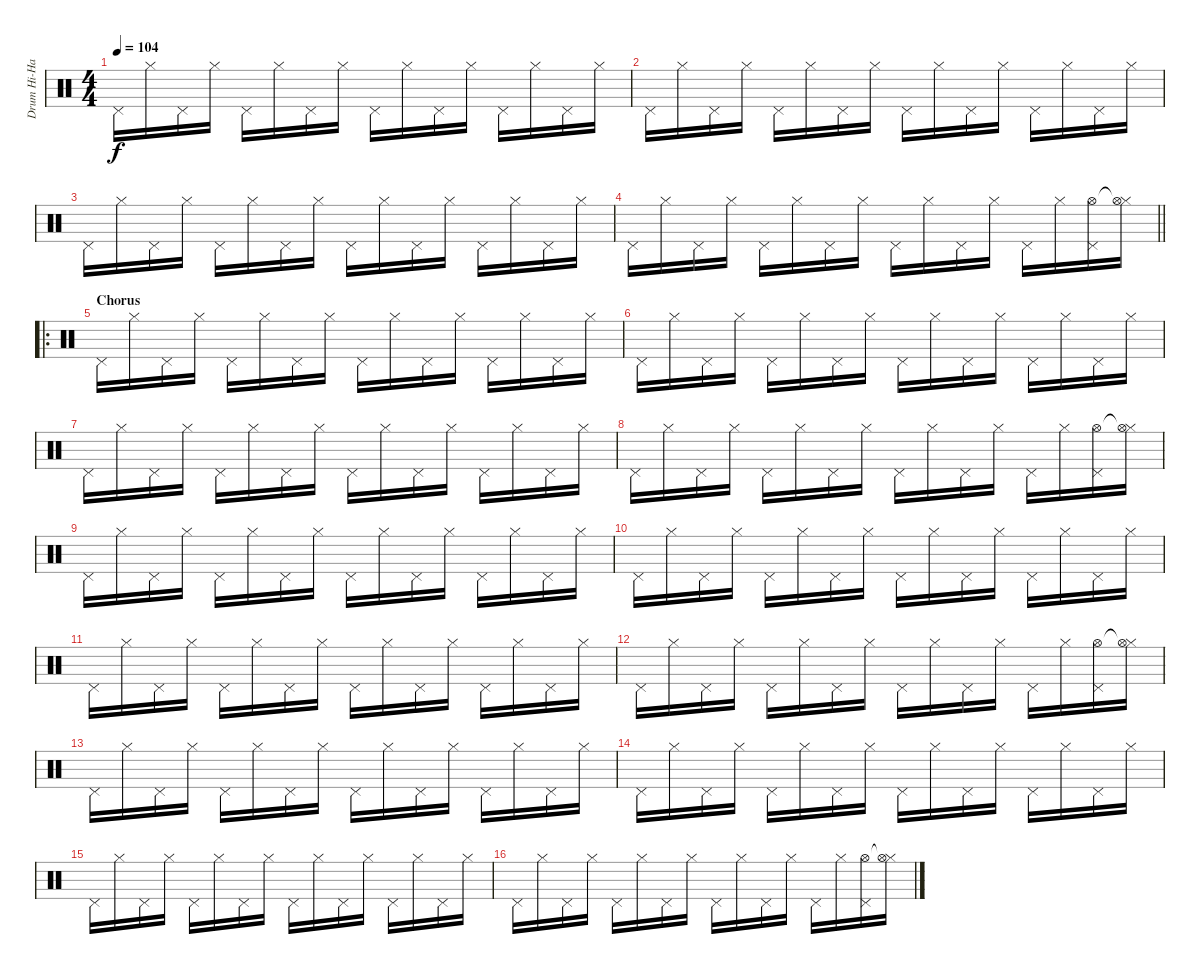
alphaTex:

\track ("Drum Hi-Hat" "Drum Hi-Ha") {instrument percussion}
\staff {score}
\articulation defaults
\ts (4 4)
\tempo 104
\clef neutral
\ks c "Pedal Hi-Hat (hit)".16{dy f} "Hi-Hat (closed)".16 "Pedal Hi-Hat (hit)".16 "Hi-Hat (closed)".16 "Pedal Hi-Hat (hit)".16 "Hi-Hat (closed)".16 "Pedal Hi-Hat (hit)".16 "Hi-Hat (closed)".16 "Pedal Hi-Hat (hit)".16 "Hi-Hat (closed)".16 "Pedal Hi-Hat (hit)".16 "Hi-Hat (closed)".16 "Pedal Hi-Hat (hit)".16 "Hi-Hat (closed)".16 "Pedal Hi-Hat (hit)".16 "Hi-Hat (closed)".16
|
"Pedal Hi-Hat (hit)".16 "Hi-Hat (closed)".16 "Pedal Hi-Hat (hit)".16 "Hi-Hat (closed)".16 "Pedal Hi-Hat (hit)".16 "Hi-Hat (closed)".16 "Pedal Hi-Hat (hit)".16 "Hi-Hat (closed)".16 "Pedal Hi-Hat (hit)".16 "Hi-Hat (closed)".16 "Pedal Hi-Hat (hit)".16 "Hi-Hat (closed)".16 "Pedal Hi-Hat (hit)".16 "Hi-Hat (closed)".16 "Pedal Hi-Hat (hit)".16 "Hi-Hat (closed)".16 |
"Pedal Hi-Hat (hit)".16 "Hi-Hat (closed)".16 "Pedal Hi-Hat (hit)".16 "Hi-Hat (closed)".16 "Pedal Hi-Hat (hit)".16 "Hi-Hat (closed)".16 "Pedal Hi-Hat (hit)".16 "Hi-Hat (closed)".16 "Pedal Hi-Hat (hit)".16 "Hi-Hat (closed)".16 "Pedal Hi-Hat (hit)".16 "Hi-Hat (closed)".16 "Pedal Hi-Hat (hit)".16 "Hi-Hat (closed)".16 "Pedal Hi-Hat (hit)".16 "Hi-Hat (closed)".16 |
\barLineRight lightlight "Pedal Hi-Hat (hit)".16 "Hi-Hat (closed)".16 "Pedal Hi-Hat (hit)".16 "Hi-Hat (closed)".16 "Pedal Hi-Hat (hit)".16 "Hi-Hat (closed)".16 "Pedal Hi-Hat (hit)".16 "Hi-Hat (closed)".16 "Pedal Hi-Hat (hit)".16 "Hi-Hat (closed)".16 "Pedal Hi-Hat (hit)".16 "Hi-Hat (closed)".16 "Pedal Hi-Hat (hit)".16 "Hi-Hat (closed)".16
("Pedal Hi-Hat (hit)" "Hi-Hat (open)").16 ("Hi-Hat (closed)" "Hi-Hat (open)"{t}).16 |
\ro
\section ("" "Chorus")
"Pedal Hi-Hat (hit)".16 "Hi-Hat (closed)".16 "Pedal Hi-Hat (hit)".16 "Hi-Hat (closed)".16 "Pedal Hi-Hat (hit)".16 "Hi-Hat (closed)".16 "Pedal Hi-Hat (hit)".16 "Hi-Hat (closed)".16 "Pedal Hi-Hat (hit)".16 "Hi-Hat (closed)".16 "Pedal Hi-Hat (hit)".16 "Hi-Hat (closed)".16 "Pedal Hi-Hat (hit)".16 "Hi-Hat (closed)".16 "Pedal Hi-Hat (hit)".16 "Hi-Hat (closed)".16 |
"Pedal Hi-Hat (hit)".16 "Hi-Hat (closed)".16 "Pedal Hi-Hat (hit)".16 "Hi-Hat (closed)".16 "Pedal Hi-Hat (hit)".16 "Hi-Hat (closed)".16 "Pedal Hi-Hat (hit)".16 "Hi-Hat (closed)".16 "Pedal Hi-Hat (hit)".16 "Hi-Hat (closed)".16 "Pedal Hi-Hat (hit)".16 "Hi-Hat (closed)".16 "Pedal Hi-Hat (hit)".16 "Hi-Hat (closed)".16 "Pedal Hi-Hat (hit)".16 "Hi-Hat (closed)".16 |
"Pedal Hi-Hat (hit)".16 "Hi-Hat (closed)".16 "Pedal Hi-Hat (hit)".16 "Hi-Hat (closed)".16 "Pedal Hi-Hat (hit)".16 "Hi-Hat (closed)".16 "Pedal Hi-Hat (hit)".16 "Hi-Hat (closed)".16 "Pedal Hi-Hat (hit)".16 "Hi-Hat (closed)".16 "Pedal Hi-Hat (hit)".16 "Hi-Hat (closed)".16 "Pedal Hi-Hat (hit)".16 "Hi-Hat (closed)".16 "Pedal Hi-Hat (hit)".16 "Hi-Hat (closed)".16 |
"Pedal Hi-Hat (hit)".16 "Hi-Hat (closed)".16 "Pedal Hi-Hat (hit)".16 "Hi-Hat (closed)".16 "Pedal Hi-Hat (hit)".16 "Hi-Hat (closed)".16 "Pedal Hi-Hat (hit)".16 "Hi-Hat (closed)".16 "Pedal Hi-Hat (hit)".16 "Hi-Hat (closed)".16 "Pedal Hi-Hat (hit)".16 "Hi-Hat (closed)".16 "Pedal Hi-Hat (hit)".16 "Hi-Hat (closed)".16 ("Pedal Hi-Hat (hit)" "Hi-Hat (open)").16 ("Hi-Hat (closed)" "Hi-Hat (open)"{t}).16 |
"Pedal Hi-Hat (hit)".16 "Hi-Hat (closed)".16 "Pedal Hi-Hat (hit)".16 "Hi-Hat (closed)".16 "Pedal Hi-Hat (hit)".16 "Hi-Hat (closed)".16 "Pedal Hi-Hat (hit)".16 "Hi-Hat (closed)".16 "Pedal Hi-Hat (hit)".16 "Hi-Hat (closed)".16 "Pedal Hi-Hat (hit)".16 "Hi-Hat (closed)".16 "Pedal Hi-Hat (hit)".16 "Hi-Hat (closed)".16 "Pedal Hi-Hat (hit)".16 "Hi-Hat (closed)".16 |
"Pedal Hi-Hat (hit)".16 "Hi-Hat (closed)".16 "Pedal Hi-Hat (hit)".16 "Hi-Hat (closed)".16 "Pedal Hi-Hat (hit)".16 "Hi-Hat (closed)".16 "Pedal Hi-Hat (hit)".16 "Hi-Hat (closed)".16 "Pedal Hi-Hat (hit)".16 "Hi-Hat (closed)".16 "Pedal Hi-Hat (hit)".16 "Hi-Hat (closed)".16 "Pedal Hi-Hat (hit)".16 "Hi-Hat (closed)".16 "Pedal Hi-Hat (hit)".16 "Hi-Hat (closed)".16 |
"Pedal Hi-Hat (hit)".16 "Hi-Hat (closed)".16 "Pedal Hi-Hat (hit)".16 "Hi-Hat (closed)".16 "Pedal Hi-Hat (hit)".16 "Hi-Hat (closed)".16 "Pedal Hi-Hat (hit)".16 "Hi-Hat (closed)".16 "Pedal Hi-Hat (hit)".16 "Hi-Hat (closed)".16 "Pedal Hi-Hat (hit)".16 "Hi-Hat (closed)".16 "Pedal Hi-Hat (hit)".16 "Hi-Hat (closed)".16 "Pedal Hi-Hat (hit)".16 "Hi-Hat (closed)".16 |
"Pedal Hi-Hat (hit)".16 "Hi-Hat (closed)".16 "Pedal Hi-Hat (hit)".16 "Hi-Hat (closed)".16 "Pedal Hi-Hat (hit)".16 "Hi-Hat (closed)".16 "Pedal Hi-Hat (hit)".16 "Hi-Hat (closed)".16 "Pedal Hi-Hat (hit)".16 "Hi-Hat (closed)".16 "Pedal Hi-Hat (hit)".16 "Hi-Hat (closed)".16 "Pedal Hi-Hat (hit)".16 "Hi-Hat (closed)".16 ("Pedal Hi-Hat (hit)" "Hi-Hat (open)").16 ("Hi-Hat (closed)" "Hi-Hat (open)"{t}).16 |
"Pedal Hi-Hat (hit)".16 "Hi-Hat (closed)".16 "Pedal Hi-Hat (hit)".16 "Hi-Hat (closed)".16 "Pedal Hi-Hat (hit)".16 "Hi-Hat (closed)".16 "Pedal Hi-Hat (hit)".16 "Hi-Hat (closed)".16 "Pedal Hi-Hat (hit)".16 "Hi-Hat (closed)".16 "Pedal Hi-Hat (hit)".16 "Hi-Hat (closed)".16 "Pedal Hi-Hat (hit)".16 "Hi-Hat (closed)".16 "Pedal Hi-Hat (hit)".16 "Hi-Hat (closed)".16 |
"Pedal Hi-Hat (hit)".16 "Hi-Hat (closed)".16 "Pedal Hi-Hat (hit)".16 "Hi-Hat (closed)".16 "Pedal Hi-Hat (hit)".16 "Hi-Hat (closed)".16 "Pedal Hi-Hat (hit)".16 "Hi-Hat (closed)".16 "Pedal Hi-Hat (hit)".16 "Hi-Hat (closed)".16 "Pedal Hi-Hat (hit)".16 "Hi-Hat (closed)".16 "Pedal Hi-Hat (hit)".16 "Hi-Hat (closed)".16 "Pedal Hi-Hat (hit)".16 "Hi-Hat (closed)".16 |
"Pedal Hi-Hat (hit)".16 "Hi-Hat (closed)".16 "Pedal Hi-Hat (hit)".16 "Hi-Hat (closed)".16 "Pedal Hi-Hat (hit)".16 "Hi-Hat (closed)".16 "Pedal Hi-Hat (hit)".16 "Hi-Hat (closed)".16 "Pedal Hi-Hat (hit)".16 "Hi-Hat (closed)".16 "Pedal Hi-Hat (hit)".16 "Hi-Hat (closed)".16 "Pedal Hi-Hat (hit)".16 "Hi-Hat (closed)".16 "Pedal Hi-Hat (hit)".16 "Hi-Hat (closed)".16 |
"Pedal Hi-Hat (hit)".16 "Hi-Hat (closed)".16 "Pedal Hi-Hat (hit)".16 "Hi-Hat (closed)".16 "Pedal Hi-Hat (hit)".16 "Hi-Hat (closed)".16 "Pedal Hi-Hat (hit)".16 "Hi-Hat (closed)".16 "Pedal Hi-Hat (hit)".16 "Hi-Hat (closed)".16 "Pedal Hi-Hat (hit)".16 "Hi-Hat (closed)".16 "Pedal Hi-Hat (hit)".16 "Hi-Hat (closed)".16 ("Pedal Hi-Hat (hit)" "Hi-Hat (open)").16 ("Hi-Hat (closed)" "Hi-Hat (open)"{t}).16
